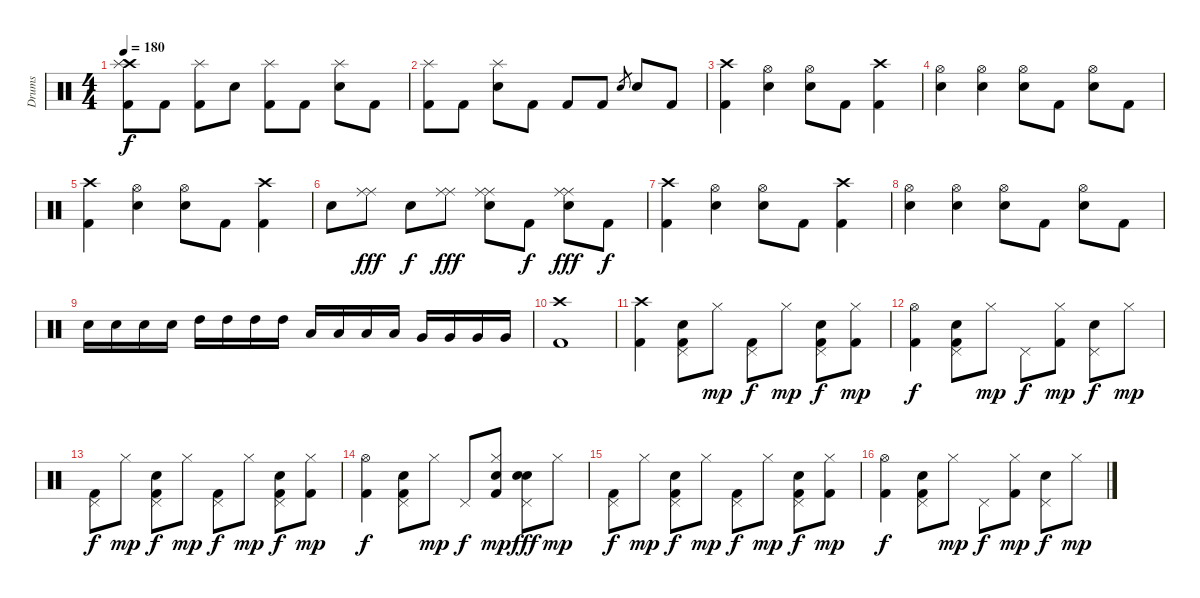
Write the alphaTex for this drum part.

\track ("Drums" "Drums") {instrument percussion}
\staff {score}
\articulation defaults
\ts (4 4)
\tempo 180
\clef neutral
\ks c
("Crash high (hit)" "Splash (hit)" "Kick (hit) 2").8{dy f} "Kick (hit) 2".8 ("Splash (hit)" "Kick (hit) 2").8 "Electric Snare (hit)".8 ("Splash (hit)" "Kick (hit) 2").8 "Kick (hit) 2".8 ("Splash (hit)" "Electric Snare (hit)").8 "Kick (hit) 2".8 |
("Splash (hit)" "Kick (hit) 2").8 "Kick (hit) 2".8 ("Splash (hit)" "Electric Snare (hit)").8 "Kick (hit) 2".8 "Kick (hit) 2".8 "Kick (hit) 2".8 "Electric Snare (hit)"{sl}.8{gr} "Electric Snare (hit)".8 "Kick (hit) 2".8 |
("Crash high (hit)" "Kick (hit) 2").4 ("Hi-Hat (open)" "Electric Snare (hit)").4 ("Hi-Hat (open)" "Electric Snare (hit)").8 "Kick (hit) 2".8 ("Crash high (hit)" "Kick (hit) 2").4 |
("Hi-Hat (open)" "Electric Snare (hit)").4 ("Hi-Hat (open)" "Electric Snare (hit)").4 ("Hi-Hat (open)" "Electric Snare (hit)").8 "Kick (hit) 2".8 ("Hi-Hat (open)" "Electric Snare (hit)").8 "Kick (hit) 2".8 |
("Crash high (hit)" "Kick (hit) 2").4 ("Hi-Hat (open)" "Electric Snare (hit)").4 ("Hi-Hat (open)" "Electric Snare (hit)").8 "Kick (hit) 2".8 ("Crash high (hit)" "Kick (hit) 2").4 |
"Electric Snare (hit)".8 ("Ride (middle)" "Ride (middle)").8{dy fff} "Electric Snare (hit)".8{dy f} ("Ride (middle)" "Ride (middle)").8{dy fff} ("Ride (middle)" "Ride (middle)" "Electric Snare (hit)").8 "Kick (hit) 2".8{dy f} ("Ride (middle)" "Ride (middle)" "Electric Snare (hit)").8{dy fff} "Kick (hit) 2".8{dy f} |
("Crash high (hit)" "Kick (hit) 2").4 ("Hi-Hat (open)" "Electric Snare (hit)").4 ("Hi-Hat (open)" "Electric Snare (hit)").8 "Kick (hit) 2".8 ("Crash high (hit)" "Kick (hit) 2").4 |
("Hi-Hat (open)" "Electric Snare (hit)").4 ("Hi-Hat (open)" "Electric Snare (hit)").4 ("Hi-Hat (open)" "Electric Snare (hit)").8 "Kick (hit) 2".8 ("Hi-Hat (open)" "Electric Snare (hit)").8 "Kick (hit) 2".8 |
"Electric Snare (hit)".16 "Electric Snare (hit)".16 "Electric Snare (hit)".16 "Electric Snare (hit)".16 "High Tom (hit)".16 "High Tom (hit)".16 "High Tom (hit)".16 "High Tom (hit)".16 "Low Floor Tom (hit)".16 "Low Floor Tom (hit)".16 "Low Floor Tom (hit)".16 "Low Floor Tom (hit)".16 "Very Low Tom (hit)".16 "Very Low Tom (hit)".16 "Very Low Tom (hit)".16 "Very Low Tom (hit)".16 |
("Crash high (hit)" "Kick (hit) 2").1 |
("Crash high (hit)" "Kick (hit) 2").4 ("Pedal Hi-Hat (hit)" "Electric Snare (hit)" "Kick (hit) 2").8 "Hi-Hat (closed)".8{dy mp} ("Pedal Hi-Hat (hit)" "Kick (hit) 2").8{dy f} "Hi-Hat (closed)".8{dy mp} ("Pedal Hi-Hat (hit)" "Electric Snare (hit)" "Kick (hit) 2").8{dy f} ("Hi-Hat (closed)" "Kick (hit) 2").8{dy mp} |
("Hi-Hat (open)" "Kick (hit) 2").4{dy f} ("Pedal Hi-Hat (hit)" "Electric Snare (hit)" "Kick (hit) 2").8 "Hi-Hat (closed)".8{dy mp} "Pedal Hi-Hat (hit)".8{dy f} ("Hi-Hat (closed)" "Kick (hit) 2").8{dy mp} ("Pedal Hi-Hat (hit)" "Electric Snare (hit)").8{dy f} "Hi-Hat (closed)".8{dy mp} |
("Pedal Hi-Hat (hit)" "Kick (hit) 2").8{dy f} "Hi-Hat (closed)".8{dy mp} ("Pedal Hi-Hat (hit)" "Electric Snare (hit)" "Kick (hit) 2").8{dy f} "Hi-Hat (closed)".8{dy mp} ("Pedal Hi-Hat (hit)" "Kick (hit) 2").8{dy f} "Hi-Hat (closed)".8{dy mp} ("Pedal Hi-Hat (hit)" "Electric Snare (hit)" "Kick (hit) 2").8{dy f} ("Hi-Hat (closed)" "Kick (hit) 2").8{dy mp} |
("Hi-Hat (open)" "Kick (hit) 2").4{dy f} ("Pedal Hi-Hat (hit)" "Electric Snare (hit)" "Kick (hit) 2").8 "Hi-Hat (closed)".8{dy mp} "Pedal Hi-Hat (hit)".8{dy f} ("Hand Clap (hit)" "Hi-Hat (closed)" "Kick (hit) 2").8{dy mp} ("Hand Clap (hit)" "Pedal Hi-Hat (hit)" "Electric Snare (hit)").8{dy fff} "Hi-Hat (closed)".8{dy mp} |
("Pedal Hi-Hat (hit)" "Kick (hit) 2").8{dy f} "Hi-Hat (closed)".8{dy mp} ("Pedal Hi-Hat (hit)" "Electric Snare (hit)" "Kick (hit) 2").8{dy f} "Hi-Hat (closed)".8{dy mp} ("Pedal Hi-Hat (hit)" "Kick (hit) 2").8{dy f} "Hi-Hat (closed)".8{dy mp} ("Pedal Hi-Hat (hit)" "Electric Snare (hit)" "Kick (hit) 2").8{dy f} ("Hi-Hat (closed)" "Kick (hit) 2").8{dy mp} |
("Hi-Hat (open)" "Kick (hit) 2").4{dy f} ("Pedal Hi-Hat (hit)" "Electric Snare (hit)" "Kick (hit) 2").8 "Hi-Hat (closed)".8{dy mp} "Pedal Hi-Hat (hit)".8{dy f} ("Hi-Hat (closed)" "Kick (hit) 2").8{dy mp} ("Pedal Hi-Hat (hit)" "Electric Snare (hit)").8{dy f} "Hi-Hat (closed)".8{dy mp}
